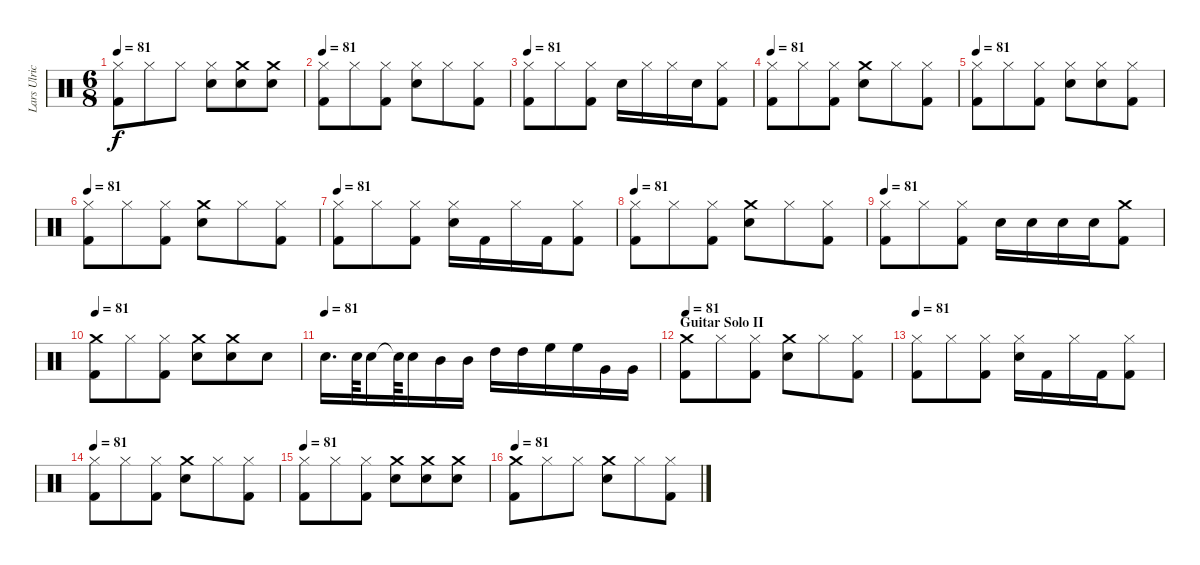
\track ("Lars Ulrich (Drums)" "Lars Ulric") {instrument percussion}
\staff {score}
\articulation defaults
\ts (6 8)
\tempo 81
\clef neutral
\ks c
("Hi-Hat (closed)" "Kick (hit) 2").8{dy f} "Hi-Hat (closed)".8 "Hi-Hat (closed)".8 ("Snare (hit) 2" "Hi-Hat (closed)").8 ("Crash medium (hit)" "Snare (hit) 2").8 ("Crash medium (hit)" "Snare (hit) 2").8 |
\tempo 81
("Kick (hit) 2" "Hi-Hat (closed)").8 "Hi-Hat (closed)".8 ("Kick (hit) 2" "Hi-Hat (closed)").8 ("Snare (hit) 2" "Hi-Hat (closed)").8 "Hi-Hat (closed)".8 ("Kick (hit) 2" "Hi-Hat (closed)").8 |
\tempo 81
("Hi-Hat (closed)" "Kick (hit) 2").8 "Hi-Hat (closed)".8 ("Kick (hit) 2" "Hi-Hat (closed)").8 "Snare (hit) 2".16 "Hi-Hat (closed)".16 "Hi-Hat (closed)".16 "Snare (hit) 2".16 ("Hi-Hat (closed)" "Kick (hit) 2").8 |
\tempo 81
("Hi-Hat (closed)" "Kick (hit) 2").8 "Hi-Hat (closed)".8 ("Kick (hit) 2" "Hi-Hat (closed)").8 ("Crash medium (hit)" "Snare (hit) 2").8 "Hi-Hat (closed)".8 ("Kick (hit) 2" "Hi-Hat (closed)").8 |
\tempo 81
("Hi-Hat (closed)" "Kick (hit) 2").8 "Hi-Hat (closed)".8 ("Kick (hit) 2" "Hi-Hat (closed)").8 ("Hi-Hat (closed)" "Snare (hit) 2").8 ("Hi-Hat (closed)" "Snare (hit) 2").8 ("Kick (hit) 2" "Hi-Hat (closed)").8 |
\tempo 81
("Hi-Hat (closed)" "Kick (hit) 2").8 "Hi-Hat (closed)".8 ("Kick (hit) 2" "Hi-Hat (closed)").8 ("Crash medium (hit)" "Snare (hit) 2").8 "Hi-Hat (closed)".8 ("Kick (hit) 2" "Hi-Hat (closed)").8 |
\tempo 81
("Hi-Hat (closed)" "Kick (hit) 2").8 "Hi-Hat (closed)".8 ("Kick (hit) 2" "Hi-Hat (closed)").8 ("Snare (hit) 2" "Hi-Hat (closed)").16 "Kick (hit) 2".16 "Hi-Hat (closed)".16 "Kick (hit) 2".16 ("Kick (hit) 2" "Hi-Hat (closed)").8 |
\tempo 81
("Kick (hit) 2" "Hi-Hat (closed)").8 "Hi-Hat (closed)".8 ("Kick (hit) 2" "Hi-Hat (closed)").8 ("Crash medium (hit)" "Snare (hit) 2").8 "Hi-Hat (closed)".8 ("Hi-Hat (closed)" "Kick (hit) 2").8 |
\tempo 81
("Kick (hit) 2" "Hi-Hat (closed)").8 "Hi-Hat (closed)".8 ("Kick (hit) 2" "Hi-Hat (closed)").8 "Snare (hit) 2".16 "Snare (hit) 2".16 "Snare (hit) 2".16 "Snare (hit) 2".16 ("Crash medium (hit)" "Kick (hit) 2").8 |
\tempo 81
("Kick (hit) 2" "Crash medium (hit)").8 "Hi-Hat (closed)".8 ("Kick (hit) 2" "Hi-Hat (closed)").8 ("Crash medium (hit)" "Snare (hit) 2").8 ("Crash medium (hit)" "Snare (hit) 2").8 "Snare (hit) 2".8 |
\tempo (81)
"Snare (hit) 2".16{d} "Snare (hit) 2".64 "Snare (hit) 2".16 "Snare (hit)"{t}.64 "Snare (hit) 2".16 "Mid Tom (hit)".16 "Mid Tom (hit)".16 "High Tom (hit)".16 "High Tom (hit)".16 "High Floor Tom (hit)".16 "High Floor Tom (hit)".16 "Very Low Tom (hit)".16 "Very Low Tom (hit)".16 |
\section ("" "Guitar Solo II")
\tempo 81
("Kick (hit) 2" "Crash medium (hit)").8 "Hi-Hat (closed)".8 ("Kick (hit) 2" "Hi-Hat (closed)").8 ("Crash medium (hit)" "Snare (hit) 2").8 "Hi-Hat (closed)".8 ("Kick (hit) 2" "Hi-Hat (closed)").8 |
\tempo 81
("Hi-Hat (closed)" "Kick (hit) 2").8 "Hi-Hat (closed)".8 ("Kick (hit) 2" "Hi-Hat (closed)").8 ("Snare (hit) 2" "Hi-Hat (closed)").16 "Kick (hit) 2".16 "Hi-Hat (closed)".16 "Kick (hit) 2".16 ("Kick (hit) 2" "Hi-Hat (closed)").8 |
\tempo 81
("Hi-Hat (closed)" "Kick (hit) 2").8 "Hi-Hat (closed)".8 ("Hi-Hat (closed)" "Kick (hit) 2").8 ("Crash medium (hit)" "Snare (hit) 2").8 "Hi-Hat (closed)".8 ("Hi-Hat (closed)" "Kick (hit) 2").8 |
\tempo 81
("Hi-Hat (closed)" "Kick (hit) 2").8 "Hi-Hat (closed)".8 ("Kick (hit) 2" "Hi-Hat (closed)").8 ("Crash medium (hit)" "Snare (hit) 2").8 ("Crash medium (hit)" "Snare (hit) 2").8 ("Crash medium (hit)" "Snare (hit) 2").8 |
\tempo 81
("Crash medium (hit)" "Kick (hit) 2").8 "Hi-Hat (closed)".8 "Hi-Hat (closed)".8 ("Crash medium (hit)" "Snare (hit) 2").8 "Hi-Hat (closed)".8 ("Kick (hit) 2" "Hi-Hat (closed)").8
